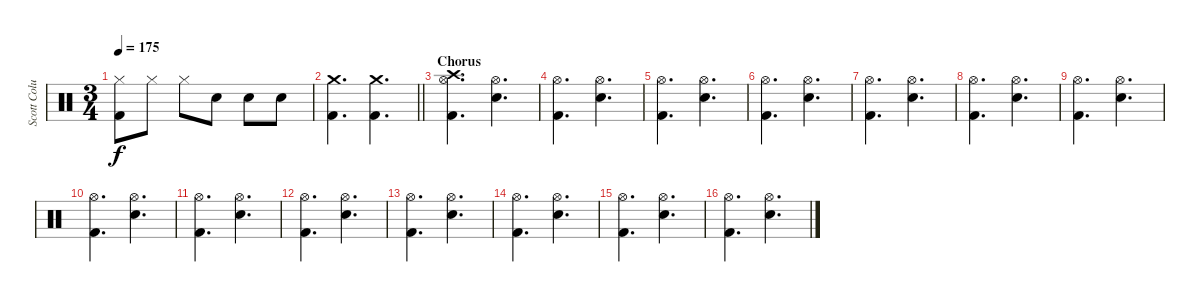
\track ("Scott Columbus" "Scott Colu") {instrument percussion}
\staff {score}
\articulation defaults
\ts (3 4)
\tempo 175
\clef neutral
\ks c
("Kick (hit) 2" "Hi-Hat (closed)").8{dy f} "Hi-Hat (closed)".8 "Hi-Hat (closed)".8 "Snare (hit) 2".8 "Snare (hit) 2".8 "Snare (hit) 2".8 |
\barLineRight lightlight
("Kick (hit) 2" "Crash medium (hit)").4{d} ("Kick (hit) 2" "Crash medium (hit)").4{d} |
\section ("" "Chorus")
("Kick (hit) 2" "Hi-Hat (open)" "Crash high (hit)").4{d} ("Snare (hit) 2" "Hi-Hat (open)").4{d} |
("Kick (hit) 2" "Hi-Hat (open)").4{d} ("Snare (hit) 2" "Hi-Hat (open)").4{d} |
("Kick (hit) 2" "Hi-Hat (open)").4{d} ("Snare (hit) 2" "Hi-Hat (open)").4{d} |
("Kick (hit) 2" "Hi-Hat (open)").4{d} ("Snare (hit) 2" "Hi-Hat (open)").4{d} |
("Kick (hit) 2" "Hi-Hat (open)").4{d} ("Snare (hit) 2" "Hi-Hat (open)").4{d} |
("Kick (hit) 2" "Hi-Hat (open)").4{d} ("Snare (hit) 2" "Hi-Hat (open)").4{d} |
("Kick (hit) 2" "Hi-Hat (open)").4{d} ("Snare (hit) 2" "Hi-Hat (open)").4{d} |
("Kick (hit) 2" "Hi-Hat (open)").4{d} ("Snare (hit) 2" "Hi-Hat (open)").4{d} |
("Kick (hit) 2" "Hi-Hat (open)").4{d} ("Snare (hit) 2" "Hi-Hat (open)").4{d} |
("Kick (hit) 2" "Hi-Hat (open)").4{d} ("Snare (hit) 2" "Hi-Hat (open)").4{d} |
("Kick (hit) 2" "Hi-Hat (open)").4{d} ("Snare (hit) 2" "Hi-Hat (open)").4{d} |
("Kick (hit) 2" "Hi-Hat (open)").4{d} ("Snare (hit) 2" "Hi-Hat (open)").4{d} |
("Kick (hit) 2" "Hi-Hat (open)").4{d} ("Snare (hit) 2" "Hi-Hat (open)").4{d} |
("Kick (hit) 2" "Hi-Hat (open)").4{d} ("Snare (hit) 2" "Hi-Hat (open)").4{d}
